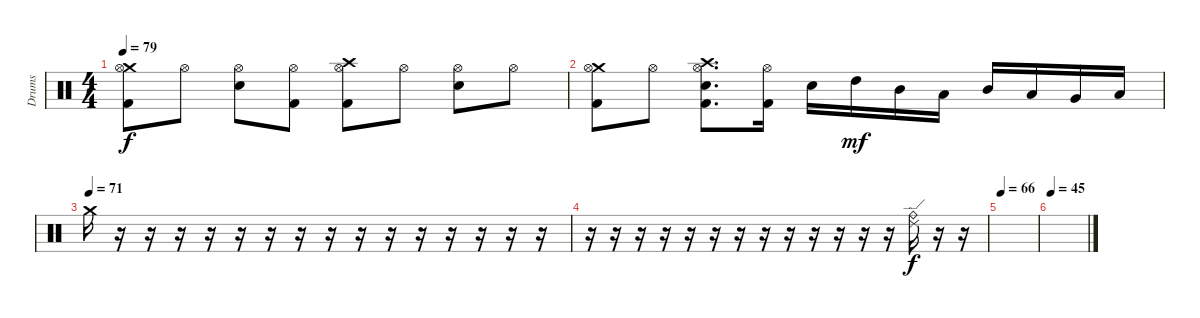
\track ("Drums" "Drums") {instrument percussion}
\staff {score}
\articulation defaults
\ts (4 4)
\tempo 79
\clef neutral
\ks c
("Crash medium (hit)" "Hi-Hat (open)" "Kick (hit) 2").8{dy f} "Hi-Hat (open)".8 ("Hi-Hat (open)" "Electric Snare (hit)").8 ("Hi-Hat (open)" "Kick (hit) 2").8 ("Crash high (hit)" "Hi-Hat (open)" "Kick (hit) 2").8 "Hi-Hat (open)".8 ("Hi-Hat (open)" "Electric Snare (hit)").8 "Hi-Hat (open)".8 |
("Crash medium (hit)" "Hi-Hat (open)" "Kick (hit) 2").8 "Hi-Hat (open)".8 ("Crash high (hit)" "Hi-Hat (open)" "Electric Snare (hit)" "Kick (hit) 2").8{d} ("Hi-Hat (open)" "Kick (hit) 2").16 "Electric Snare (hit)".16 "High Tom (hit)".16{dy mf} "Mid Tom (hit)".16 "Low Tom (hit)".16 "Mid Tom (hit)".16 "Low Tom (hit)".16 "Very Low Tom (hit)".16 "Low Floor Tom (hit)".16 |
\tempo (71)
"Crash medium (hit)".16 r.16 r.16 r.16 r.16 r.16 r.16 r.16 r.16 r.16 r.16 r.16 r.16 r.16 r.16 r.16 |
r.16 r.16 r.16 r.16 r.16 r.16 r.16 r.16 r.16 r.16 r.16 r.16 r.16 ("Ride (bell)" "Ride (edge) 2").16{dy f} r.16 r.16 |
\tempo 66
|
\tempo 45
